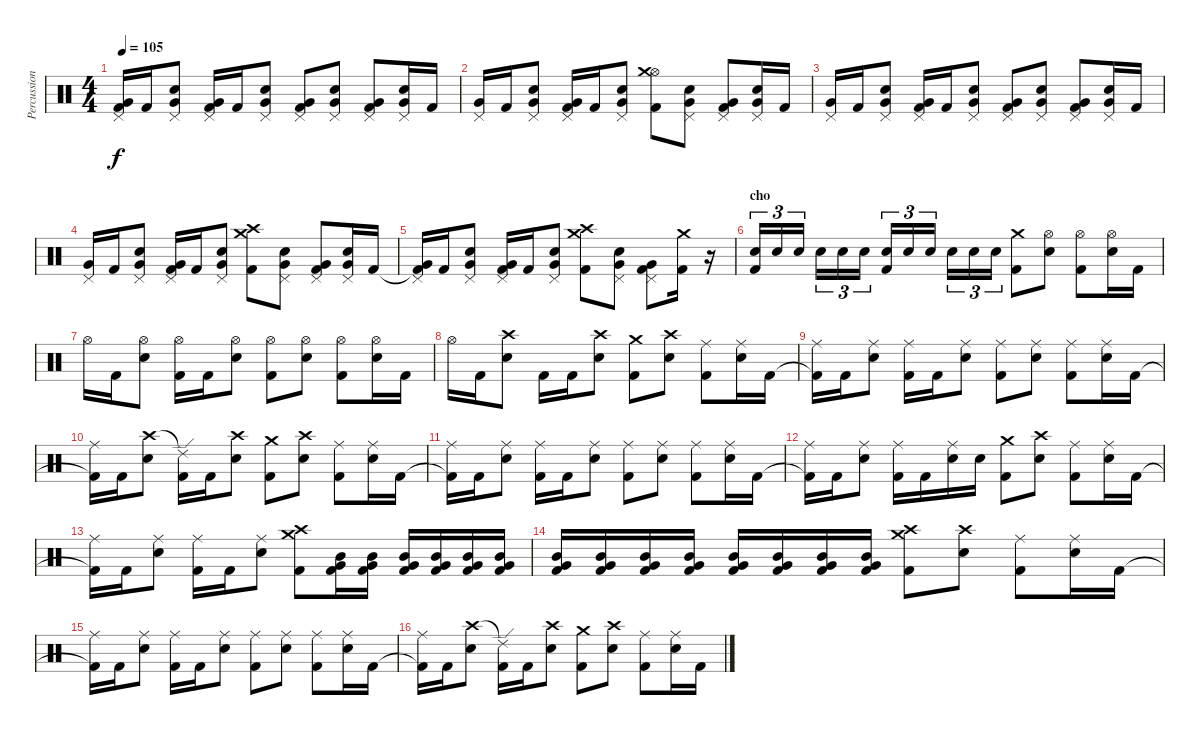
\track ("Percussion" "Percussion") {instrument percussion}
\staff {score}
\articulation defaults
\ts (4 4)
\tempo 105
\clef neutral
\ks c
("Kick (hit) 2"{t} "Very Low Tom (hit)" "Pedal Hi-Hat (hit)").16{dy f} "Kick (hit) 2".16 ("Electric Snare (hit)" "Very Low Tom (hit)" "Pedal Hi-Hat (hit)").8 ("Kick (hit) 2" "Very Low Tom (hit)" "Pedal Hi-Hat (hit)").16 "Kick (hit) 2".16 ("Electric Snare (hit)" "Very Low Tom (hit)" "Pedal Hi-Hat (hit)").8 ("Kick (hit) 2" "Very Low Tom (hit)" "Pedal Hi-Hat (hit)").8 ("Electric Snare (hit)" "Very Low Tom (hit)" "Pedal Hi-Hat (hit)").8 ("Kick (hit) 2" "Very Low Tom (hit)" "Pedal Hi-Hat (hit)").8 ("Electric Snare (hit)" "Very Low Tom (hit)" "Pedal Hi-Hat (hit)").16 "Kick (hit) 2".16 |
("Very Low Tom (hit)" "Pedal Hi-Hat (hit)").16 "Kick (hit) 2".16 ("Electric Snare (hit)" "Very Low Tom (hit)" "Pedal Hi-Hat (hit)").8 ("Kick (hit) 2" "Very Low Tom (hit)" "Pedal Hi-Hat (hit)").16 "Kick (hit) 2".16 ("Electric Snare (hit)" "Very Low Tom (hit)" "Pedal Hi-Hat (hit)").8 ("Kick (hit) 2" "Hi-Hat (open)" "Crash medium (hit)").8 ("Electric Snare (hit)" "Very Low Tom (hit)" "Pedal Hi-Hat (hit)").8 ("Kick (hit) 2" "Very Low Tom (hit)" "Pedal Hi-Hat (hit)").8 ("Electric Snare (hit)" "Very Low Tom (hit)" "Pedal Hi-Hat (hit)").16 "Kick (hit) 2".16 |
("Very Low Tom (hit)" "Pedal Hi-Hat (hit)").16 "Kick (hit) 2".16 ("Electric Snare (hit)" "Very Low Tom (hit)" "Pedal Hi-Hat (hit)").8 ("Kick (hit) 2" "Very Low Tom (hit)" "Pedal Hi-Hat (hit)").16 "Kick (hit) 2".16 ("Electric Snare (hit)" "Very Low Tom (hit)" "Pedal Hi-Hat (hit)").8 ("Kick (hit) 2" "Very Low Tom (hit)" "Pedal Hi-Hat (hit)").8 ("Electric Snare (hit)" "Very Low Tom (hit)" "Pedal Hi-Hat (hit)").8 ("Kick (hit) 2" "Very Low Tom (hit)" "Pedal Hi-Hat (hit)").8 ("Electric Snare (hit)" "Very Low Tom (hit)" "Pedal Hi-Hat (hit)").16 "Kick (hit) 2".16 |
("Very Low Tom (hit)" "Pedal Hi-Hat (hit)").16 "Kick (hit) 2".16 ("Electric Snare (hit)" "Very Low Tom (hit)" "Pedal Hi-Hat (hit)").8 ("Kick (hit) 2" "Very Low Tom (hit)" "Pedal Hi-Hat (hit)").16 "Kick (hit) 2".16 ("Electric Snare (hit)" "Very Low Tom (hit)" "Pedal Hi-Hat (hit)").8 ("Kick (hit) 2" "Crash high (hit)" "Crash medium (hit)").8 ("Electric Snare (hit)" "Very Low Tom (hit)" "Pedal Hi-Hat (hit)").8 ("Kick (hit) 2" "Very Low Tom (hit)" "Pedal Hi-Hat (hit)").8 ("Electric Snare (hit)" "Very Low Tom (hit)" "Pedal Hi-Hat (hit)").16 "Kick (hit) 2".16 |
("Kick (hit) 2"{t} "Very Low Tom (hit)" "Pedal Hi-Hat (hit)").16 "Kick (hit) 2".16 ("Electric Snare (hit)" "Very Low Tom (hit)" "Pedal Hi-Hat (hit)").8 ("Kick (hit) 2" "Very Low Tom (hit)" "Pedal Hi-Hat (hit)").16 "Kick (hit) 2".16 ("Electric Snare (hit)" "Very Low Tom (hit)" "Pedal Hi-Hat (hit)").8 ("Kick (hit) 2" "Crash high (hit)" "Crash medium (hit)").8 ("Electric Snare (hit)" "Very Low Tom (hit)" "Pedal Hi-Hat (hit)").8 ("Kick (hit) 2" "Very Low Tom (hit)" "Pedal Hi-Hat (hit)").8 ("Kick (hit) 2" "Crash medium (hit)").16 r.16 |
\section ("" "cho")
("Kick (hit) 2" "Electric Snare (hit)").16{tu (3 2)} "Electric Snare (hit)".16{tu (3 2)} "Electric Snare (hit)".16{tu (3 2)} "Electric Snare (hit)".16{tu (3 2)} "Electric Snare (hit)".16{tu (3 2)} "Electric Snare (hit)".16{tu (3 2)} ("Kick (hit) 2" "Electric Snare (hit)").16{tu (3 2)} "Electric Snare (hit)".16{tu (3 2)} "Electric Snare (hit)".16{tu (3 2)} "Electric Snare (hit)".16{tu (3 2)} "Electric Snare (hit)".16{tu (3 2)} "Electric Snare (hit)".16{tu (3 2)} ("Kick (hit) 2" "Crash medium (hit)").8 ("Electric Snare (hit)" "Hi-Hat (open)").8 ("Kick (hit) 2" "Hi-Hat (open)").8 ("Electric Snare (hit)" "Hi-Hat (open)").16 "Kick (hit) 2".16 |
"Hi-Hat (open)".16 "Kick (hit) 2".16 ("Electric Snare (hit)" "Hi-Hat (open)").8 ("Kick (hit) 2" "Hi-Hat (open)").16 "Kick (hit) 2".16 ("Electric Snare (hit)" "Hi-Hat (open)").8 ("Kick (hit) 2" "Hi-Hat (open)").8 ("Electric Snare (hit)" "Hi-Hat (open)").8 ("Kick (hit) 2" "Hi-Hat (open)").8 ("Electric Snare (hit)" "Hi-Hat (open)").16 "Kick (hit) 2".16 |
"Hi-Hat (open)".16 "Kick (hit) 2".16 ("Electric Snare (hit)" "Crash high (hit)").8 "Kick (hit) 2".16 "Kick (hit) 2".16 ("Electric Snare (hit)" "Crash high (hit)").8 ("Kick (hit) 2" "Crash medium (hit)").8 ("Electric Snare (hit)" "Crash high (hit)").8 ("Kick (hit) 2" "Ride (middle)").8 ("Electric Snare (hit)" "Ride (middle)").16 "Kick (hit) 2".16 |
("Kick (hit) 2"{t} "Ride (middle)").16 "Kick (hit) 2".16 ("Electric Snare (hit)" "Ride (middle)").8 ("Kick (hit) 2" "Ride (middle)").16 "Kick (hit) 2".16 ("Electric Snare (hit)" "Ride (middle)").8 ("Kick (hit) 2" "Ride (middle)").8 ("Electric Snare (hit)" "Ride (middle)").8 ("Kick (hit) 2" "Ride (middle)").8 ("Electric Snare (hit)" "Ride (middle)").16 "Kick (hit) 2".16 |
("Kick (hit) 2"{t} "Ride (middle)").16 "Kick (hit) 2".16 ("Electric Snare (hit)" "Crash high (hit)").8 ("Kick (hit) 2" "Ride (edge) 2"{t}).16 "Kick (hit) 2".16 ("Electric Snare (hit)" "Crash high (hit)").8 ("Kick (hit) 2" "Crash medium (hit)").8 ("Electric Snare (hit)" "Crash high (hit)").8 ("Kick (hit) 2" "Ride (middle)").8 ("Electric Snare (hit)" "Ride (middle)").16 "Kick (hit) 2".16 |
("Kick (hit) 2"{t} "Ride (middle)").16 "Kick (hit) 2".16 ("Electric Snare (hit)" "Ride (middle)").8 ("Kick (hit) 2" "Ride (middle)").16 "Kick (hit) 2".16 ("Electric Snare (hit)" "Ride (middle)").8 ("Kick (hit) 2" "Ride (middle)").8 ("Electric Snare (hit)" "Ride (middle)").8 ("Kick (hit) 2" "Ride (middle)").8 ("Electric Snare (hit)" "Ride (middle)").16 "Kick (hit) 2".16 |
("Kick (hit) 2"{t} "Ride (middle)").16 "Kick (hit) 2".16 ("Electric Snare (hit)" "Ride (middle)").8 ("Kick (hit) 2" "Ride (middle)").16 "Kick (hit) 2".16 ("Electric Snare (hit)" "Ride (middle)").16 "Electric Snare (hit)".16 ("Kick (hit) 2" "Crash medium (hit)").8 ("Electric Snare (hit)" "Crash high (hit)").8 ("Kick (hit) 2" "Ride (middle)").8 ("Electric Snare (hit)" "Ride (middle)").16 "Kick (hit) 2".16 |
("Kick (hit) 2"{t} "Ride (middle)").16 "Kick (hit) 2".16 ("Electric Snare (hit)" "Ride (middle)").8 ("Kick (hit) 2" "Ride (middle)").16 "Kick (hit) 2".16 ("Electric Snare (hit)" "Ride (middle)").8 ("Kick (hit) 2" "Crash high (hit)" "Crash medium (hit)").8 ("Kick (hit) 2" "Very Low Tom (hit)" "Mid Tom (hit)").16 ("Kick (hit) 2" "Very Low Tom (hit)" "Mid Tom (hit)").16 ("Kick (hit) 2" "Very Low Tom (hit)" "Mid Tom (hit)").16 ("Kick (hit) 2" "Very Low Tom (hit)" "Mid Tom (hit)").16 ("Kick (hit) 2" "Very Low Tom (hit)" "Mid Tom (hit)").16 ("Kick (hit) 2" "Very Low Tom (hit)" "Mid Tom (hit)").16 |
("Kick (hit) 2" "Very Low Tom (hit)" "Mid Tom (hit)").16 ("Kick (hit) 2" "Very Low Tom (hit)" "Mid Tom (hit)").16 ("Kick (hit) 2" "Very Low Tom (hit)" "Mid Tom (hit)").16 ("Kick (hit) 2" "Very Low Tom (hit)" "Mid Tom (hit)").16 ("Kick (hit) 2" "Very Low Tom (hit)" "Mid Tom (hit)").16 ("Kick (hit) 2" "Very Low Tom (hit)" "Mid Tom (hit)").16 ("Kick (hit) 2" "Very Low Tom (hit)" "Mid Tom (hit)").16 ("Kick (hit) 2" "Very Low Tom (hit)" "Mid Tom (hit)").16 ("Kick (hit) 2" "Crash high (hit)" "Crash medium (hit)").8 ("Electric Snare (hit)" "Crash high (hit)").8 ("Kick (hit) 2" "Ride (middle)").8 ("Electric Snare (hit)" "Ride (middle)").16 "Kick (hit) 2".16 |
("Kick (hit) 2"{t} "Ride (middle)").16 "Kick (hit) 2".16 ("Electric Snare (hit)" "Ride (middle)").8 ("Kick (hit) 2" "Ride (middle)").16 "Kick (hit) 2".16 ("Electric Snare (hit)" "Ride (middle)").8 ("Kick (hit) 2" "Ride (middle)").8 ("Electric Snare (hit)" "Ride (middle)").8 ("Kick (hit) 2" "Ride (middle)").8 ("Electric Snare (hit)" "Ride (middle)").16 "Kick (hit) 2".16 |
("Kick (hit) 2"{t} "Ride (middle)").16 "Kick (hit) 2".16 ("Electric Snare (hit)" "Crash high (hit)").8 ("Kick (hit) 2" "Ride (edge) 2"{t}).16 "Kick (hit) 2".16 ("Electric Snare (hit)" "Crash high (hit)").8 ("Kick (hit) 2" "Crash medium (hit)").8 ("Electric Snare (hit)" "Crash high (hit)").8 ("Kick (hit) 2" "Ride (middle)").8 ("Electric Snare (hit)" "Ride (middle)").16 "Kick (hit) 2".16
